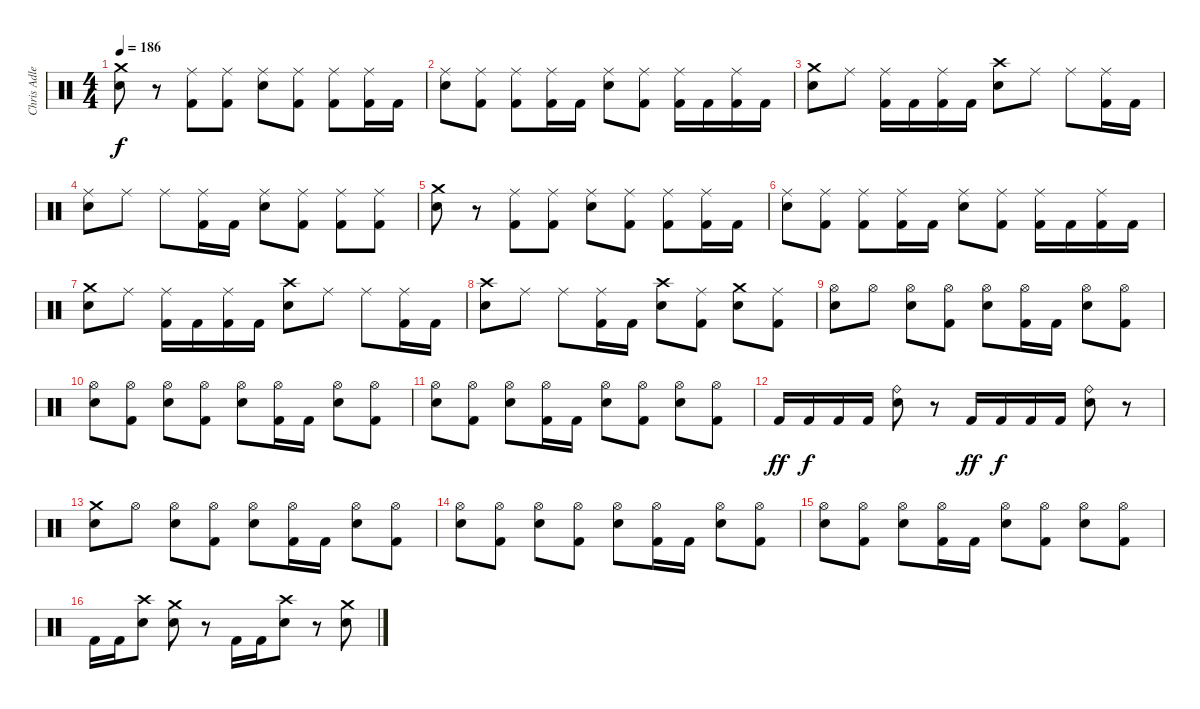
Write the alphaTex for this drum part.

\track ("Chris Adler" "Chris Adle") {instrument percussion}
\staff {score}
\articulation defaults
\ts (4 4)
\tempo 186
\clef neutral
\ks c
("Crash medium (hit)" "Electric Snare (hit)").8{dy f} r.8 ("Ride (middle)" "Kick (hit) 2").8 ("Ride (middle)" "Kick (hit) 2").8 ("Ride (middle)" "Electric Snare (hit)").8 ("Ride (middle)" "Kick (hit) 2").8 ("Ride (middle)" "Kick (hit) 2").8 ("Ride (middle)" "Kick (hit) 2").16 "Kick (hit) 2".16 |
("Ride (middle)" "Electric Snare (hit)").8 ("Ride (middle)" "Kick (hit) 2").8 ("Ride (middle)" "Kick (hit) 2").8 ("Ride (middle)" "Kick (hit) 2").16 "Kick (hit) 2".16 ("Ride (middle)" "Electric Snare (hit)").8 ("Ride (middle)" "Kick (hit) 2").8 ("Ride (middle)" "Kick (hit) 2").16 "Kick (hit) 2".16 ("Ride (middle)" "Kick (hit) 2").16 "Kick (hit) 2".16 |
("Crash medium (hit)" "Electric Snare (hit)").8 "Ride (middle)".8 ("Ride (middle)" "Kick (hit) 2").16 "Kick (hit) 2".16 ("Ride (middle)" "Kick (hit) 2").16 "Kick (hit) 2".16 ("Crash high (hit)" "Electric Snare (hit)").8 "Ride (middle)".8 "Ride (middle)".8 ("Ride (middle)" "Kick (hit) 2").16 "Kick (hit) 2".16 |
("Ride (middle)" "Electric Snare (hit)").8 "Ride (middle)".8 "Ride (middle)".8 ("Ride (middle)" "Kick (hit) 2").16 "Kick (hit) 2".16 ("Ride (middle)" "Electric Snare (hit)").8 ("Ride (middle)" "Kick (hit) 2").8 ("Ride (middle)" "Kick (hit) 2").8 ("Ride (middle)" "Kick (hit) 2").8 |
("Crash medium (hit)" "Electric Snare (hit)").8 r.8 ("Ride (middle)" "Kick (hit) 2").8 ("Ride (middle)" "Kick (hit) 2").8 ("Ride (middle)" "Electric Snare (hit)").8 ("Ride (middle)" "Kick (hit) 2").8 ("Ride (middle)" "Kick (hit) 2").8 ("Ride (middle)" "Kick (hit) 2").16 "Kick (hit) 2".16 |
("Ride (middle)" "Electric Snare (hit)").8 ("Ride (middle)" "Kick (hit) 2").8 ("Ride (middle)" "Kick (hit) 2").8 ("Ride (middle)" "Kick (hit) 2").16 "Kick (hit) 2".16 ("Ride (middle)" "Electric Snare (hit)").8 ("Ride (middle)" "Kick (hit) 2").8 ("Ride (middle)" "Kick (hit) 2").16 "Kick (hit) 2".16 ("Ride (middle)" "Kick (hit) 2").16 "Kick (hit) 2".16 |
("Crash medium (hit)" "Electric Snare (hit)").8 "Ride (middle)".8 ("Ride (middle)" "Kick (hit) 2").16 "Kick (hit) 2".16 ("Ride (middle)" "Kick (hit) 2").16 "Kick (hit) 2".16 ("Crash high (hit)" "Electric Snare (hit)").8 "Ride (middle)".8 "Ride (middle)".8 ("Ride (middle)" "Kick (hit) 2").16 "Kick (hit) 2".16 |
("Crash high (hit)" "Electric Snare (hit)").8 "Ride (middle)".8 "Ride (middle)".8 ("Ride (middle)" "Kick (hit) 2").16 "Kick (hit) 2".16 ("Crash high (hit)" "Electric Snare (hit)").8 ("Ride (middle)" "Kick (hit) 2").8 ("Crash medium (hit)" "Electric Snare (hit)").8 ("Ride (middle)" "Kick (hit) 2").8 |
("Hi-Hat (open)" "Electric Snare (hit)").8 "Hi-Hat (open)".8 ("Hi-Hat (open)" "Electric Snare (hit)").8 ("Hi-Hat (open)" "Kick (hit) 2").8 ("Hi-Hat (open)" "Electric Snare (hit)").8 ("Hi-Hat (open)" "Kick (hit) 2").16 "Kick (hit) 2".16 ("Hi-Hat (open)" "Electric Snare (hit)").8 ("Hi-Hat (open)" "Kick (hit) 2").8 |
("Hi-Hat (open)" "Electric Snare (hit)").8 ("Hi-Hat (open)" "Kick (hit) 2").8 ("Hi-Hat (open)" "Electric Snare (hit)").8 ("Hi-Hat (open)" "Kick (hit) 2").8 ("Hi-Hat (open)" "Electric Snare (hit)").8 ("Hi-Hat (open)" "Kick (hit) 2").16 "Kick (hit) 2".16 ("Hi-Hat (open)" "Electric Snare (hit)").8 ("Hi-Hat (open)" "Kick (hit) 2").8 |
("Hi-Hat (open)" "Electric Snare (hit)").8 ("Hi-Hat (open)" "Kick (hit) 2").8 ("Hi-Hat (open)" "Electric Snare (hit)").8 ("Hi-Hat (open)" "Kick (hit) 2").16 "Kick (hit) 2".16 ("Hi-Hat (open)" "Electric Snare (hit)").8 ("Hi-Hat (open)" "Kick (hit) 2").8 ("Hi-Hat (open)" "Electric Snare (hit)").8 ("Hi-Hat (open)" "Kick (hit) 2").8 |
"Kick (hit) 2".16{dy ff} "Kick (hit) 2".16{dy f} "Kick (hit) 2".16 "Kick (hit) 2".16 ("Ride (bell)" "Electric Snare (hit)").8 r.8 "Kick (hit) 2".16{dy ff} "Kick (hit) 2".16{dy f} "Kick (hit) 2".16 "Kick (hit) 2".16 ("Ride (bell)" "Electric Snare (hit)").8 r.8 |
("Crash medium (hit)" "Electric Snare (hit)").8 "Hi-Hat (open)".8 ("Hi-Hat (open)" "Electric Snare (hit)").8 ("Hi-Hat (open)" "Kick (hit) 2").8 ("Hi-Hat (open)" "Electric Snare (hit)").8 ("Hi-Hat (open)" "Kick (hit) 2").16 "Kick (hit) 2".16 ("Hi-Hat (open)" "Electric Snare (hit)").8 ("Hi-Hat (open)" "Kick (hit) 2").8 |
("Hi-Hat (open)" "Electric Snare (hit)").8 ("Hi-Hat (open)" "Kick (hit) 2").8 ("Hi-Hat (open)" "Electric Snare (hit)").8 ("Hi-Hat (open)" "Kick (hit) 2").8 ("Hi-Hat (open)" "Electric Snare (hit)").8 ("Hi-Hat (open)" "Kick (hit) 2").16 "Kick (hit) 2".16 ("Hi-Hat (open)" "Electric Snare (hit)").8 ("Hi-Hat (open)" "Kick (hit) 2").8 |
("Hi-Hat (open)" "Electric Snare (hit)").8 ("Hi-Hat (open)" "Kick (hit) 2").8 ("Hi-Hat (open)" "Electric Snare (hit)").8 ("Hi-Hat (open)" "Kick (hit) 2").16 "Kick (hit) 2".16 ("Hi-Hat (open)" "Electric Snare (hit)").8 ("Hi-Hat (open)" "Kick (hit) 2").8 ("Hi-Hat (open)" "Electric Snare (hit)").8 ("Hi-Hat (open)" "Kick (hit) 2").8 |
"Kick (hit) 2".16 "Kick (hit) 2".16 ("Crash high (hit)" "Electric Snare (hit)").8 ("Crash medium (hit)" "Electric Snare (hit)").8 r.8 "Kick (hit) 2".16 "Kick (hit) 2".16 ("Crash high (hit)" "Electric Snare (hit)").8 r.8 ("Crash medium (hit)" "Electric Snare (hit)").8
